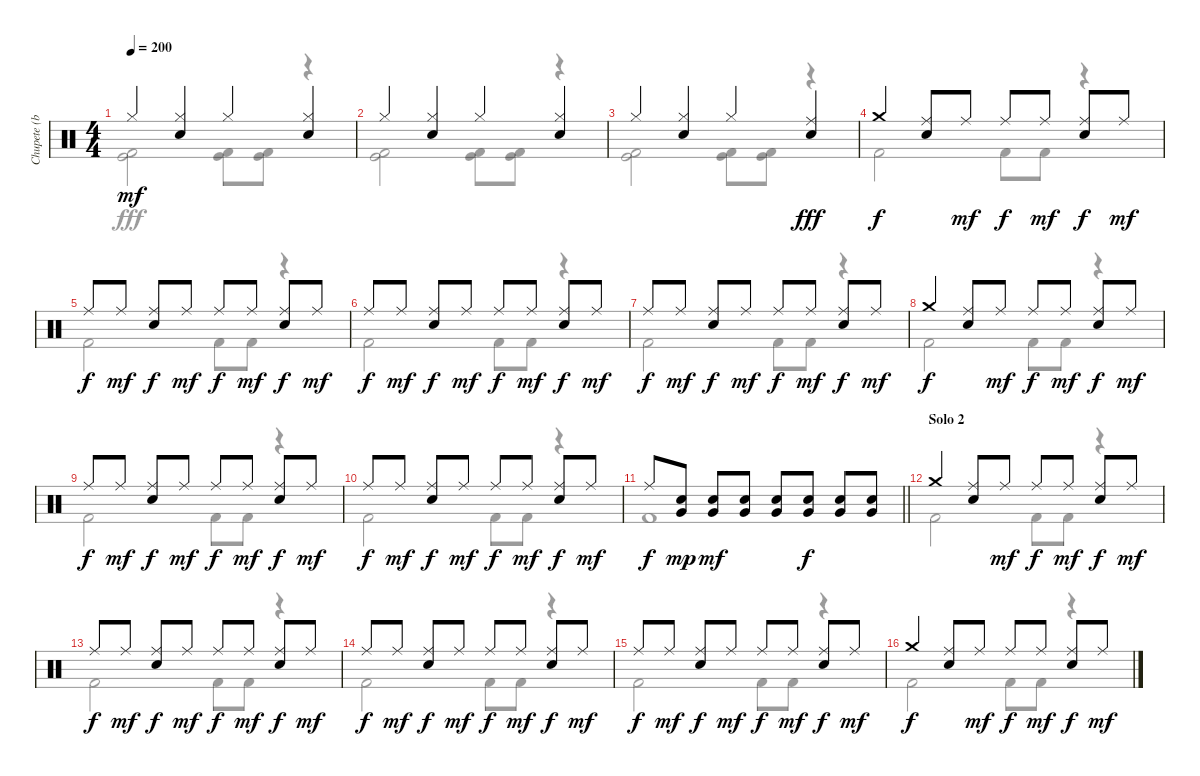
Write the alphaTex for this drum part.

\track ("Chupete (batería)" "Chupete (b") {instrument percussion}
\staff {score}
\articulation defaults
\voice
\ts (4 4)
\tempo 200
\clef neutral
\ks c "Hi-Hat (closed)".4{dy mf}
("Hi-Hat (closed)" "Electric Snare (hit)").4 "Hi-Hat (closed)".4 ("Hi-Hat (closed)" "Electric Snare (hit)").4 |
"Hi-Hat (closed)".4 ("Hi-Hat (closed)" "Electric Snare (hit)").4 "Hi-Hat (closed)".4 ("Hi-Hat (closed)" "Electric Snare (hit)").4 |
"Hi-Hat (closed)".4 ("Hi-Hat (closed)" "Electric Snare (hit)").4 "Hi-Hat (closed)".4 ("Ride (middle)" "Electric Snare (hit)").4{dy fff} |
"Crash medium (hit)".4{dy f} ("Ride (middle)" "Electric Snare (hit)").8 "Ride (middle)".8{dy mf} "Ride (middle)".8{dy f} "Ride (middle)".8{dy mf} ("Ride (middle)" "Electric Snare (hit)").8{dy f} "Ride (middle)".8{dy mf} |
"Ride (middle)".8{dy f} "Ride (middle)".8{dy mf} ("Ride (middle)" "Electric Snare (hit)").8{dy f} "Ride (middle)".8{dy mf} "Ride (middle)".8{dy f} "Ride (middle)".8{dy mf} ("Ride (middle)" "Electric Snare (hit)").8{dy f} "Ride (middle)".8{dy mf} |
"Ride (middle)".8{dy f} "Ride (middle)".8{dy mf} ("Ride (middle)" "Electric Snare (hit)").8{dy f} "Ride (middle)".8{dy mf} "Ride (middle)".8{dy f} "Ride (middle)".8{dy mf} ("Ride (middle)" "Electric Snare (hit)").8{dy f} "Ride (middle)".8{dy mf} |
"Ride (middle)".8{dy f} "Ride (middle)".8{dy mf} ("Ride (middle)" "Electric Snare (hit)").8{dy f} "Ride (middle)".8{dy mf} "Ride (middle)".8{dy f} "Ride (middle)".8{dy mf} ("Ride (middle)" "Electric Snare (hit)").8{dy f} "Ride (middle)".8{dy mf} |
"Crash medium (hit)".4{dy f} ("Ride (middle)" "Electric Snare (hit)").8 "Ride (middle)".8{dy mf} "Ride (middle)".8{dy f} "Ride (middle)".8{dy mf} ("Ride (middle)" "Electric Snare (hit)").8{dy f} "Ride (middle)".8{dy mf} |
"Ride (middle)".8{dy f} "Ride (middle)".8{dy mf} ("Ride (middle)" "Electric Snare (hit)").8{dy f} "Ride (middle)".8{dy mf} "Ride (middle)".8{dy f} "Ride (middle)".8{dy mf} ("Ride (middle)" "Electric Snare (hit)").8{dy f} "Ride (middle)".8{dy mf} |
"Ride (middle)".8{dy f} "Ride (middle)".8{dy mf} ("Ride (middle)" "Electric Snare (hit)").8{dy f} "Ride (middle)".8{dy mf} "Ride (middle)".8{dy f} "Ride (middle)".8{dy mf} ("Ride (middle)" "Electric Snare (hit)").8{dy f} "Ride (middle)".8{dy mf} |
\barLineRight lightlight "Ride (middle)".8{dy f}
("Very Low Tom (hit)" "Electric Snare (hit)").8{dy mp} ("Very Low Tom (hit)" "Electric Snare (hit)").8{dy mf} ("Very Low Tom (hit)" "Electric Snare (hit)").8 ("Very Low Tom (hit)" "Electric Snare (hit)").8 ("Very Low Tom (hit)" "Electric Snare (hit)").8{dy f} ("Very Low Tom (hit)" "Electric Snare (hit)").8 ("Very Low Tom (hit)" "Electric Snare (hit)").8 |
\section ("" "Solo 2")
"Crash medium (hit)".4 ("Ride (middle)" "Electric Snare (hit)").8 "Ride (middle)".8{dy mf} "Ride (middle)".8{dy f} "Ride (middle)".8{dy mf} ("Ride (middle)" "Electric Snare (hit)").8{dy f} "Ride (middle)".8{dy mf} |
"Ride (middle)".8{dy f} "Ride (middle)".8{dy mf} ("Ride (middle)" "Electric Snare (hit)").8{dy f} "Ride (middle)".8{dy mf} "Ride (middle)".8{dy f} "Ride (middle)".8{dy mf} ("Ride (middle)" "Electric Snare (hit)").8{dy f} "Ride (middle)".8{dy mf} |
"Ride (middle)".8{dy f} "Ride (middle)".8{dy mf} ("Ride (middle)" "Electric Snare (hit)").8{dy f} "Ride (middle)".8{dy mf} "Ride (middle)".8{dy f} "Ride (middle)".8{dy mf} ("Ride (middle)" "Electric Snare (hit)").8{dy f} "Ride (middle)".8{dy mf} |
"Ride (middle)".8{dy f} "Ride (middle)".8{dy mf} ("Ride (middle)" "Electric Snare (hit)").8{dy f} "Ride (middle)".8{dy mf} "Ride (middle)".8{dy f} "Ride (middle)".8{dy mf} ("Ride (middle)" "Electric Snare (hit)").8{dy f} "Ride (middle)".8{dy mf} |
"Crash medium (hit)".4{dy f} ("Ride (middle)" "Electric Snare (hit)").8 "Ride (middle)".8{dy mf} "Ride (middle)".8{dy f} "Ride (middle)".8{dy mf} ("Ride (middle)" "Electric Snare (hit)").8{dy f} "Ride (middle)".8{dy mf}
\voice
\clef neutral
\ottava regular
\simile none
\ks c
("Kick (hit)" "Kick (hit) 2").2{dy fff} ("Kick (hit)" "Kick (hit) 2").8 ("Kick (hit)" "Kick (hit) 2").8 r.4 |
("Kick (hit)" "Kick (hit) 2").2 ("Kick (hit)" "Kick (hit) 2").8 ("Kick (hit)" "Kick (hit) 2").8 r.4 |
("Kick (hit)" "Kick (hit) 2").2 ("Kick (hit)" "Kick (hit) 2").8 ("Kick (hit)" "Kick (hit) 2").8 r.4 |
"Kick (hit) 2".2{dy f} "Kick (hit) 2".8 "Kick (hit) 2".8 r.4 |
"Kick (hit) 2".2 "Kick (hit) 2".8 "Kick (hit) 2".8 r.4 |
"Kick (hit) 2".2 "Kick (hit) 2".8 "Kick (hit) 2".8 r.4 |
"Kick (hit) 2".2 "Kick (hit) 2".8 "Kick (hit) 2".8 r.4 |
"Kick (hit) 2".2 "Kick (hit) 2".8 "Kick (hit) 2".8 r.4 |
"Kick (hit) 2".2 "Kick (hit) 2".8 "Kick (hit) 2".8 r.4 |
"Kick (hit) 2".2 "Kick (hit) 2".8 "Kick (hit) 2".8 r.4 |
\barLineRight lightlight "Kick (hit) 2".1
|
"Kick (hit) 2".2 "Kick (hit) 2".8 "Kick (hit) 2".8 r.4 |
"Kick (hit) 2".2 "Kick (hit) 2".8 "Kick (hit) 2".8 r.4 |
"Kick (hit) 2".2 "Kick (hit) 2".8 "Kick (hit) 2".8 r.4 |
"Kick (hit) 2".2 "Kick (hit) 2".8 "Kick (hit) 2".8 r.4 |
"Kick (hit) 2".2 "Kick (hit) 2".8 "Kick (hit) 2".8 r.4
